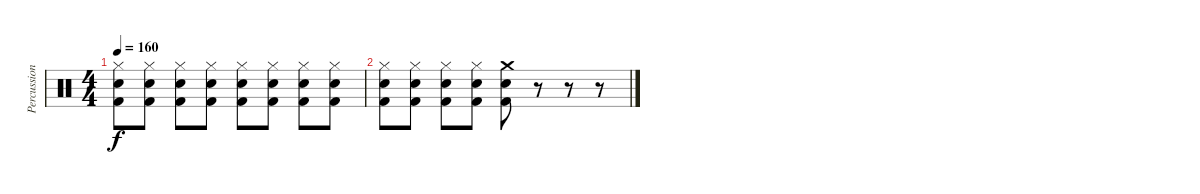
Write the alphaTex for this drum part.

\track ("Percussion" "Percussion") {instrument percussion}
\staff {score}
\articulation defaults
\ts (4 4)
\tempo 160
\clef neutral
\ks c
("Hi-Hat (closed)" "Electric Snare (hit)" "Kick (hit) 2").8{dy f} ("Hi-Hat (closed)" "Electric Snare (hit)" "Kick (hit) 2").8 ("Hi-Hat (closed)" "Electric Snare (hit)" "Kick (hit) 2").8 ("Hi-Hat (closed)" "Electric Snare (hit)" "Kick (hit) 2").8 ("Hi-Hat (closed)" "Electric Snare (hit)" "Kick (hit) 2").8 ("Hi-Hat (closed)" "Electric Snare (hit)" "Kick (hit) 2").8 ("Hi-Hat (closed)" "Electric Snare (hit)" "Kick (hit) 2").8 ("Hi-Hat (closed)" "Electric Snare (hit)" "Kick (hit) 2").8 |
("Hi-Hat (closed)" "Electric Snare (hit)" "Kick (hit) 2").8 ("Hi-Hat (closed)" "Electric Snare (hit)" "Kick (hit) 2").8 ("Hi-Hat (closed)" "Electric Snare (hit)" "Kick (hit) 2").8 ("Hi-Hat (closed)" "Electric Snare (hit)" "Kick (hit) 2").8 ("Crash medium (hit)" "Electric Snare (hit)" "Kick (hit) 2").8 r.8 r.8 r.8
